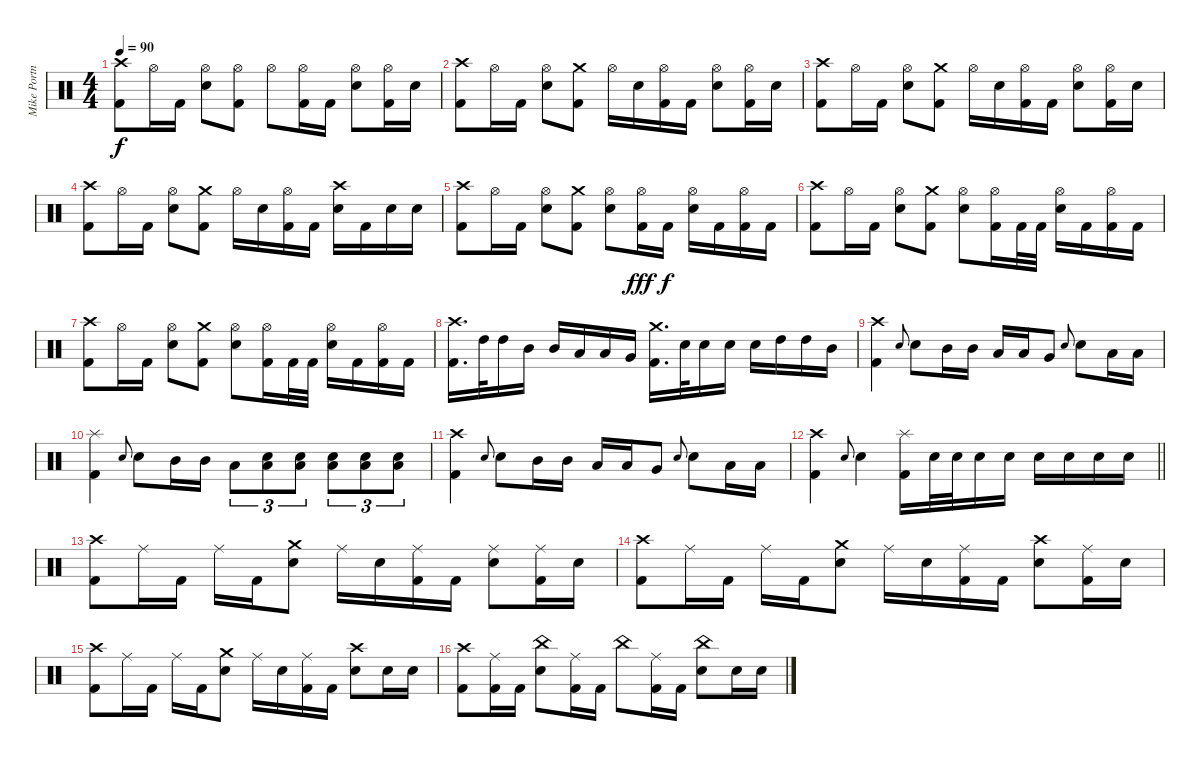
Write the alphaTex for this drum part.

\track ("Mike Portnoy" "Mike Portn") {instrument percussion}
\staff {score}
\articulation defaults
\ts (4 4)
\tempo 90
\clef neutral
\ks c
("Crash high (hit)" "Kick (hit) 2").8{dy f} "Hi-Hat (open)".16 "Kick (hit) 2".16 ("Hi-Hat (open)" "Snare (hit) 2").8 ("Hi-Hat (open)" "Kick (hit) 2").8 "Hi-Hat (open)".8 ("Hi-Hat (open)" "Kick (hit) 2").16 "Kick (hit) 2".16 ("Hi-Hat (open)" "Snare (hit) 2").8 ("Hi-Hat (open)" "Kick (hit) 2").16 "Snare (hit) 2".16 |
("Crash high (hit)" "Kick (hit) 2").8 "Hi-Hat (open)".16 "Kick (hit) 2".16 ("Hi-Hat (open)" "Snare (hit) 2").8 ("Crash medium (hit)" "Kick (hit) 2").8 "Hi-Hat (open)".16 "Snare (hit) 2".16 ("Hi-Hat (open)" "Kick (hit) 2").16 "Kick (hit) 2".16 ("Hi-Hat (open)" "Snare (hit) 2").8 ("Hi-Hat (open)" "Kick (hit) 2").16 "Snare (hit) 2".16 |
("Crash high (hit)" "Kick (hit) 2").8 "Hi-Hat (open)".16 "Kick (hit) 2".16 ("Hi-Hat (open)" "Snare (hit) 2").8 ("Crash medium (hit)" "Kick (hit) 2").8 "Hi-Hat (open)".16 "Snare (hit) 2".16 ("Hi-Hat (open)" "Kick (hit) 2").16 "Kick (hit) 2".16 ("Hi-Hat (open)" "Snare (hit) 2").8 ("Hi-Hat (open)" "Kick (hit) 2").16 "Snare (hit) 2".16 |
("Crash high (hit)" "Kick (hit) 2").8 "Hi-Hat (open)".16 "Kick (hit) 2".16 ("Hi-Hat (open)" "Snare (hit) 2").8 ("Crash medium (hit)" "Kick (hit) 2").8 "Hi-Hat (open)".16 "Snare (hit) 2".16 ("Hi-Hat (open)" "Kick (hit) 2").16 "Kick (hit) 2".16 ("Crash high (hit)" "Snare (hit) 2").16 "Kick (hit) 2".16 "Snare (hit) 2".16 "Snare (hit) 2".16 |
("Crash high (hit)" "Kick (hit) 2").8 "Hi-Hat (open)".16 "Kick (hit) 2".16 ("Hi-Hat (open)" "Snare (hit) 2").8 ("Crash medium (hit)" "Kick (hit) 2").8 ("Hi-Hat (open)" "Snare (hit) 2").8 ("Hi-Hat (open)" "Kick (hit) 2").16{dy fff} "Kick (hit) 2".16{dy f} ("Hi-Hat (open)" "Snare (hit) 2").16 "Kick (hit) 2".16 ("Hi-Hat (open)" "Kick (hit) 2").16 "Kick (hit) 2".16 |
("Crash high (hit)" "Kick (hit) 2").8 "Hi-Hat (open)".16 "Kick (hit) 2".16 ("Hi-Hat (open)" "Snare (hit) 2").8 ("Crash medium (hit)" "Kick (hit) 2").8 ("Hi-Hat (open)" "Snare (hit) 2").8 ("Hi-Hat (open)" "Kick (hit) 2").16 "Kick (hit) 2".32 "Kick (hit) 2".32 ("Hi-Hat (open)" "Snare (hit) 2").16 "Kick (hit) 2".16 ("Hi-Hat (open)" "Kick (hit) 2").16 "Kick (hit) 2".16 |
("Crash high (hit)" "Kick (hit) 2").8 "Hi-Hat (open)".16 "Kick (hit) 2".16 ("Hi-Hat (open)" "Snare (hit) 2").8 ("Crash medium (hit)" "Kick (hit) 2").8 ("Hi-Hat (open)" "Snare (hit) 2").8 ("Hi-Hat (open)" "Kick (hit) 2").16 "Kick (hit) 2".32 "Kick (hit) 2".32 ("Hi-Hat (open)" "Snare (hit) 2").16 "Kick (hit) 2".16 ("Hi-Hat (open)" "Kick (hit) 2").16 "Kick (hit) 2".16 |
("Crash high (hit)" "Kick (hit) 2").16{d} "High Tom (hit)".32 "High Tom (hit)".16 "Mid Tom (hit)".16 "Mid Tom (hit)".16 "Low Tom (hit)".16 "Low Tom (hit)".16 "Very Low Tom (hit)".16 ("Crash medium (hit)" "Kick (hit) 2").16{d} "Snare (hit) 2".32 "Snare (hit) 2".16 "Snare (hit) 2".16 "Snare (hit) 2".16 "High Tom (hit)".16 "High Tom (hit)".16 "Mid Tom (hit)".16 |
("Crash high (hit)" "Kick (hit) 2").4 "Snare (hit) 2".8{gr onbeat} "Snare (hit) 2".8 "Mid Tom (hit)".16 "Mid Tom (hit)".16 "Low Tom (hit)".16 "Low Tom (hit)".16 "Very Low Tom (hit)".8 "Snare (hit) 2".8{gr onbeat} "Snare (hit) 2".8 "Low Tom (hit)".16 "Low Tom (hit)".16 |
("Splash (hit)" "Kick (hit) 2").4 "Snare (hit) 2".8{gr onbeat} "Snare (hit) 2".8 "Mid Tom (hit)".16 "Mid Tom (hit)".16 "Low Tom (hit)".8{tu (3 2)} ("Snare (hit) 2" "Low Tom (hit)").8{tu (3 2)} ("Snare (hit) 2" "Low Tom (hit)").8{tu (3 2)} ("Snare (hit) 2" "Low Tom (hit)").8{tu (3 2)} ("Snare (hit) 2" "Low Tom (hit)").8{tu (3 2)} ("Snare (hit) 2" "Low Tom (hit)").8{tu (3 2)} |
("Crash high (hit)" "Kick (hit) 2").4 "Snare (hit) 2".8{gr onbeat} "Snare (hit) 2".8 "Mid Tom (hit)".16 "Mid Tom (hit)".16 "Low Tom (hit)".16 "Low Tom (hit)".16 "Very Low Tom (hit)".8 "Snare (hit) 2".8{gr onbeat} "Snare (hit) 2".8 "Low Tom (hit)".16 "Low Tom (hit)".16 |
\barLineRight lightlight
("Crash high (hit)" "Kick (hit) 2").4 "Snare (hit) 2".8{gr onbeat} "Snare (hit) 2".4 ("Splash (hit)" "Kick (hit) 2").16 "Snare (hit) 2".32 "Snare (hit) 2".32 "Snare (hit) 2".16 "Snare (hit) 2".16 "Snare (hit) 2".16 "Snare (hit) 2".16 "Snare (hit) 2".16 "Snare (hit) 2".16 |
("Crash high (hit)" "Kick (hit) 2").8 "Ride (middle)".16 "Kick (hit) 2".16 "Ride (middle)".16 "Kick (hit) 2".16 ("Crash medium (hit)" "Snare (hit) 2").8 "Ride (middle)".16 "Snare (hit) 2".16 ("Ride (middle)" "Kick (hit) 2").16 "Kick (hit) 2".16 ("Ride (middle)" "Snare (hit) 2").8 ("Ride (middle)" "Kick (hit) 2").16 "Snare (hit) 2".16 |
("Crash high (hit)" "Kick (hit) 2").8 "Ride (middle)".16 "Kick (hit) 2".16 "Ride (middle)".16 "Kick (hit) 2".16 ("Crash medium (hit)" "Snare (hit) 2").8 "Ride (middle)".16 "Snare (hit) 2".16 ("Ride (middle)" "Kick (hit) 2").16 "Kick (hit) 2".16 ("Crash high (hit)" "Snare (hit) 2").8 ("Ride (middle)" "Kick (hit) 2").16 "Snare (hit) 2".16 |
("Crash high (hit)" "Kick (hit) 2").8 "Ride (middle)".16 "Kick (hit) 2".16 "Ride (middle)".16 "Kick (hit) 2".16 ("Crash medium (hit)" "Snare (hit) 2").8 "Ride (middle)".16 "Snare (hit) 2".16 ("Ride (middle)" "Kick (hit) 2").16 "Kick (hit) 2".16 ("Crash high (hit)" "Snare (hit) 2").8 "Snare (hit) 2".16 "Snare (hit) 2".16 |
("Crash high (hit)" "Kick (hit) 2").8 ("Ride (middle)" "Kick (hit) 2").16 "Kick (hit) 2".16 ("China (hit)" "Snare (hit) 2").8 ("Ride (middle)" "Kick (hit) 2").16 "Kick (hit) 2".16 "China (hit)".8 ("Ride (middle)" "Kick (hit) 2").16 "Kick (hit) 2".16 ("China (hit)" "Snare (hit) 2").8 "Snare (hit) 2".16 "Snare (hit) 2".16
